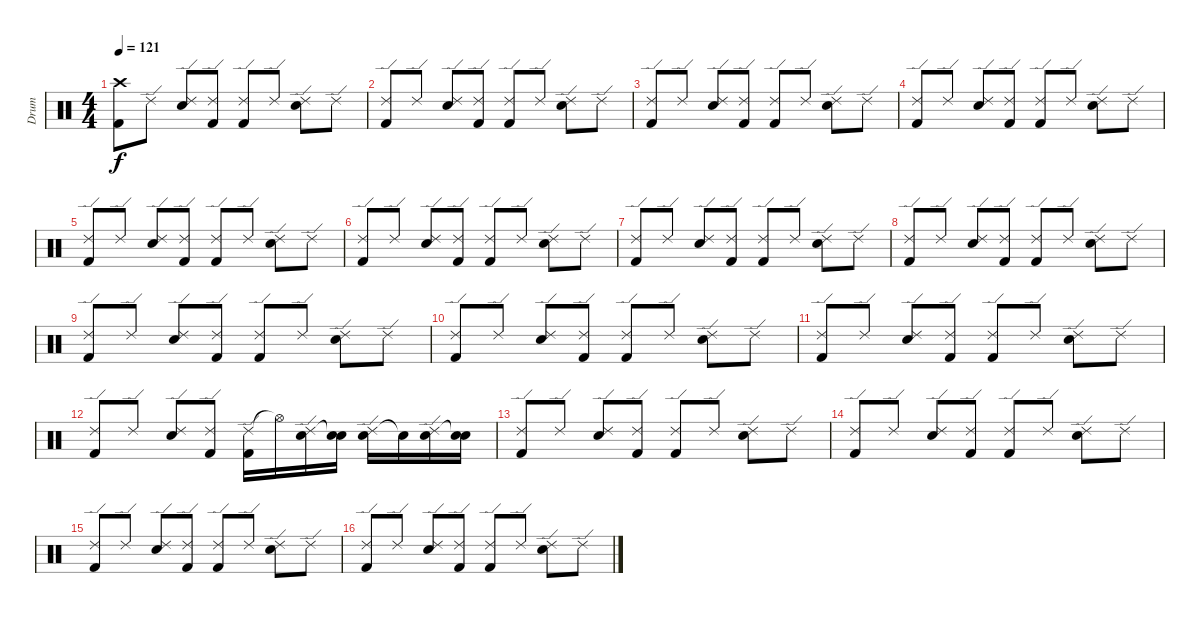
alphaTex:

\track ("Drum" "Drum") {instrument percussion}
\staff {score}
\articulation defaults
\ts (4 4)
\tempo 121
\clef neutral
\ks c
("Crash high (hit)" "Kick (hit) 2").8{dy f} "Ride (edge) 2".8 ("Ride (edge) 2" "Snare (hit) 2").8 ("Ride (edge) 2" "Kick (hit) 2").8 ("Ride (edge) 2" "Kick (hit) 2").8 "Ride (edge) 2".8 ("Ride (edge) 2" "Snare (hit) 2").8 "Ride (edge) 2".8 |
("Ride (edge) 2" "Kick (hit) 2").8 "Ride (edge) 2".8 ("Ride (edge) 2" "Snare (hit) 2").8 ("Ride (edge) 2" "Kick (hit) 2").8 ("Ride (edge) 2" "Kick (hit) 2").8 "Ride (edge) 2".8 ("Ride (edge) 2" "Snare (hit) 2").8 "Ride (edge) 2".8 |
("Ride (edge) 2" "Kick (hit) 2").8 "Ride (edge) 2".8 ("Ride (edge) 2" "Snare (hit) 2").8 ("Ride (edge) 2" "Kick (hit) 2").8 ("Ride (edge) 2" "Kick (hit) 2").8 "Ride (edge) 2".8 ("Ride (edge) 2" "Snare (hit) 2").8 "Ride (edge) 2".8 |
("Ride (edge) 2" "Kick (hit) 2").8 "Ride (edge) 2".8 ("Ride (edge) 2" "Snare (hit) 2").8 ("Ride (edge) 2" "Kick (hit) 2").8 ("Ride (edge) 2" "Kick (hit) 2").8 "Ride (edge) 2".8 ("Ride (edge) 2" "Snare (hit) 2").8 "Ride (edge) 2".8 |
("Ride (edge) 2" "Kick (hit) 2").8 "Ride (edge) 2".8 ("Ride (edge) 2" "Snare (hit) 2").8 ("Ride (edge) 2" "Kick (hit) 2").8 ("Ride (edge) 2" "Kick (hit) 2").8 "Ride (edge) 2".8 ("Ride (edge) 2" "Snare (hit) 2").8 "Ride (edge) 2".8 |
("Ride (edge) 2" "Kick (hit) 2").8 "Ride (edge) 2".8 ("Ride (edge) 2" "Snare (hit) 2").8 ("Ride (edge) 2" "Kick (hit) 2").8 ("Ride (edge) 2" "Kick (hit) 2").8 "Ride (edge) 2".8 ("Ride (edge) 2" "Snare (hit) 2").8 "Ride (edge) 2".8 |
("Ride (edge) 2" "Kick (hit) 2").8 "Ride (edge) 2".8 ("Ride (edge) 2" "Snare (hit) 2").8 ("Ride (edge) 2" "Kick (hit) 2").8 ("Ride (edge) 2" "Kick (hit) 2").8 "Ride (edge) 2".8 ("Ride (edge) 2" "Snare (hit) 2").8 "Ride (edge) 2".8 |
("Ride (edge) 2" "Kick (hit) 2").8 "Ride (edge) 2".8 ("Ride (edge) 2" "Snare (hit) 2").8 ("Ride (edge) 2" "Kick (hit) 2").8 ("Ride (edge) 2" "Kick (hit) 2").8 "Ride (edge) 2".8 ("Ride (edge) 2" "Snare (hit) 2").8 "Ride (edge) 2".8 |
("Ride (edge) 2" "Kick (hit) 2").8 "Ride (edge) 2".8 ("Ride (edge) 2" "Snare (hit) 2").8 ("Ride (edge) 2" "Kick (hit) 2").8 ("Ride (edge) 2" "Kick (hit) 2").8 "Ride (edge) 2".8 ("Ride (edge) 2" "Snare (hit) 2").8 "Ride (edge) 2".8 |
("Ride (edge) 2" "Kick (hit) 2").8 "Ride (edge) 2".8 ("Ride (edge) 2" "Snare (hit) 2").8 ("Ride (edge) 2" "Kick (hit) 2").8 ("Ride (edge) 2" "Kick (hit) 2").8 "Ride (edge) 2".8 ("Ride (edge) 2" "Snare (hit) 2").8 "Ride (edge) 2".8 |
("Ride (edge) 2" "Kick (hit) 2").8 "Ride (edge) 2".8 ("Ride (edge) 2" "Snare (hit) 2").8 ("Ride (edge) 2" "Kick (hit) 2").8 ("Ride (edge) 2" "Kick (hit) 2").8 "Ride (edge) 2".8 ("Ride (edge) 2" "Snare (hit) 2").8 "Ride (edge) 2".8 |
("Ride (edge) 2" "Kick (hit) 2").8 "Ride (edge) 2".8 ("Ride (edge) 2" "Snare (hit) 2").8 ("Ride (edge) 2" "Kick (hit) 2").8 ("Ride (edge) 2" "Kick (hit) 2").16 "Hi-Hat (open)"{t}.16 ("Ride (edge) 2" "Snare (hit) 2").16 ("Snare (hit)"{t} "Snare (hit) 2").16 ("Ride (edge) 2" "Snare (hit) 2").16 "Snare (hit)"{t}.16 ("Ride (edge) 2" "Snare (hit) 2").16 ("Snare (hit)"{t} "Snare (hit) 2").16 |
("Ride (edge) 2" "Kick (hit) 2").8 "Ride (edge) 2".8 ("Ride (edge) 2" "Snare (hit) 2").8 ("Ride (edge) 2" "Kick (hit) 2").8 ("Ride (edge) 2" "Kick (hit) 2").8 "Ride (edge) 2".8 ("Ride (edge) 2" "Snare (hit) 2").8 "Ride (edge) 2".8 |
("Ride (edge) 2" "Kick (hit) 2").8 "Ride (edge) 2".8 ("Ride (edge) 2" "Snare (hit) 2").8 ("Ride (edge) 2" "Kick (hit) 2").8 ("Ride (edge) 2" "Kick (hit) 2").8 "Ride (edge) 2".8 ("Ride (edge) 2" "Snare (hit) 2").8 "Ride (edge) 2".8 |
("Ride (edge) 2" "Kick (hit) 2").8 "Ride (edge) 2".8 ("Ride (edge) 2" "Snare (hit) 2").8 ("Ride (edge) 2" "Kick (hit) 2").8 ("Ride (edge) 2" "Kick (hit) 2").8 "Ride (edge) 2".8 ("Ride (edge) 2" "Snare (hit) 2").8 "Ride (edge) 2".8 |
("Ride (edge) 2" "Kick (hit) 2").8 "Ride (edge) 2".8 ("Ride (edge) 2" "Snare (hit) 2").8 ("Ride (edge) 2" "Kick (hit) 2").8 ("Ride (edge) 2" "Kick (hit) 2").8 "Ride (edge) 2".8 ("Ride (edge) 2" "Snare (hit) 2").8 "Ride (edge) 2".8
